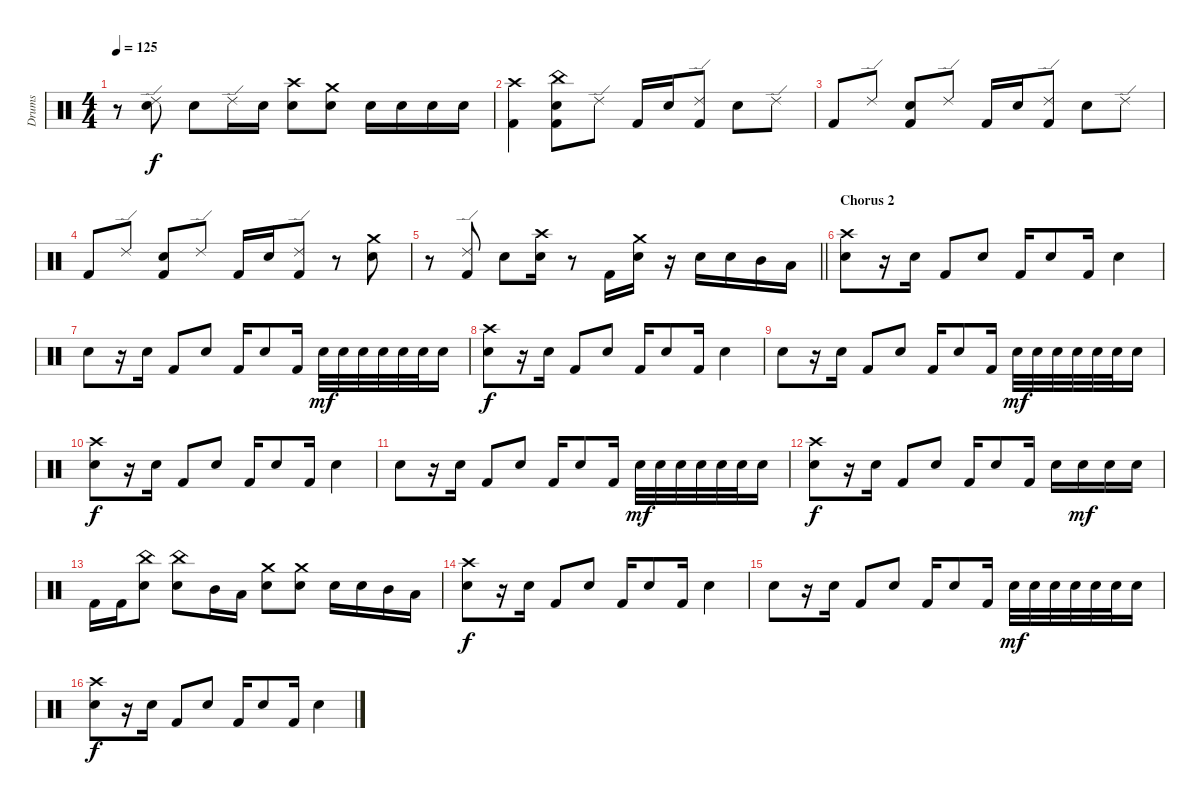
\track ("Drums" "Drums") {instrument percussion}
\staff
\articulation defaults
\ts (4 4)
\tempo 125
\clef neutral
\ks c
r.8{dy f} ("Ride (edge) 2" "Electric Snare (hit)").8 "Electric Snare (hit)".8 "Ride (edge) 2".16 "Electric Snare (hit)".16 ("Crash high (hit)" "Electric Snare (hit)").8 ("Crash medium (hit)" "Electric Snare (hit)").8 "Electric Snare (hit)".16 "Electric Snare (hit)".16 "Electric Snare (hit)".16 "Electric Snare (hit)".16 |
("Crash high (hit)" "Kick (hit) 2").4 ("China (hit)" "Electric Snare (hit)" "Kick (hit) 2").8 "Ride (edge) 2".8 "Kick (hit) 2".16 "Electric Snare (hit)".16 ("Ride (edge) 2" "Kick (hit) 2").8 "Electric Snare (hit)".8 "Ride (edge) 2".8 |
"Kick (hit) 2".8 "Ride (edge) 2".8 ("Electric Snare (hit)" "Kick (hit) 2").8 "Ride (edge) 2".8 "Kick (hit) 2".16 "Electric Snare (hit)".16 ("Ride (edge) 2" "Kick (hit) 2").8 "Electric Snare (hit)".8 "Ride (edge) 2".8 |
"Kick (hit) 2".8 "Ride (edge) 2".8 ("Electric Snare (hit)" "Kick (hit) 2").8 "Ride (edge) 2".8 "Kick (hit) 2".16 "Electric Snare (hit)".16 ("Ride (edge) 2" "Kick (hit) 2").8 r.8 ("Crash medium (hit)" "Electric Snare (hit)").8 |
\barLineRight lightlight
r.8 ("Ride (edge) 2" "Kick (hit) 2").8 "Electric Snare (hit)".8 ("Crash high (hit)" "Electric Snare (hit)").16 r.8 "Kick (hit) 2".16 ("Crash medium (hit)" "Electric Snare (hit)").16 r.16 "Electric Snare (hit)".16 "Electric Snare (hit)".16 "Mid Tom (hit)".16 "Low Tom (hit)".16 |
\section ("" "Chorus 2")
("Crash high (hit)" "Electric Snare (hit)").8 r.16 "Electric Snare (hit)".16 "Kick (hit) 2".8 "Electric Snare (hit)".8 "Kick (hit) 2".16 "Electric Snare (hit)".8 "Kick (hit) 2".16 "Electric Snare (hit)".4 |
"Electric Snare (hit)".8 r.16 "Electric Snare (hit)".16 "Kick (hit) 2".8 "Electric Snare (hit)".8 "Kick (hit) 2".16 "Electric Snare (hit)".8 "Kick (hit) 2".16 "Electric Snare (hit)".32{dy mf} "Electric Snare (hit)".32 "Electric Snare (hit)".32 "Electric Snare (hit)".32 "Electric Snare (hit)".32 "Electric Snare (hit)".32 "Electric Snare (hit)".16 |
("Crash high (hit)" "Electric Snare (hit)").8{dy f} r.16 "Electric Snare (hit)".16 "Kick (hit) 2".8 "Electric Snare (hit)".8 "Kick (hit) 2".16 "Electric Snare (hit)".8 "Kick (hit) 2".16 "Electric Snare (hit)".4 |
"Electric Snare (hit)".8 r.16 "Electric Snare (hit)".16 "Kick (hit) 2".8 "Electric Snare (hit)".8 "Kick (hit) 2".16 "Electric Snare (hit)".8 "Kick (hit) 2".16 "Electric Snare (hit)".32{dy mf} "Electric Snare (hit)".32 "Electric Snare (hit)".32 "Electric Snare (hit)".32 "Electric Snare (hit)".32 "Electric Snare (hit)".32 "Electric Snare (hit)".16 |
("Crash high (hit)" "Electric Snare (hit)").8{dy f} r.16 "Electric Snare (hit)".16 "Kick (hit) 2".8 "Electric Snare (hit)".8 "Kick (hit) 2".16 "Electric Snare (hit)".8 "Kick (hit) 2".16 "Electric Snare (hit)".4 |
"Electric Snare (hit)".8 r.16 "Electric Snare (hit)".16 "Kick (hit) 2".8 "Electric Snare (hit)".8 "Kick (hit) 2".16 "Electric Snare (hit)".8 "Kick (hit) 2".16 "Electric Snare (hit)".32{dy mf} "Electric Snare (hit)".32 "Electric Snare (hit)".32 "Electric Snare (hit)".32 "Electric Snare (hit)".32 "Electric Snare (hit)".32 "Electric Snare (hit)".16 |
("Crash high (hit)" "Electric Snare (hit)").8{dy f} r.16 "Electric Snare (hit)".16 "Kick (hit) 2".8 "Electric Snare (hit)".8 "Kick (hit) 2".16 "Electric Snare (hit)".8 "Kick (hit) 2".16 "Electric Snare (hit)".16 "Electric Snare (hit)".16{dy mf} "Electric Snare (hit)".16 "Electric Snare (hit)".16 |
"Kick (hit) 2".16 "Kick (hit) 2".16 ("China (hit)" "Electric Snare (hit)").8 ("China (hit)" "Electric Snare (hit)").8 "Mid Tom (hit)".16 "Low Tom (hit)".16 ("Crash medium (hit)" "Electric Snare (hit)").8 ("Crash medium (hit)" "Electric Snare (hit)").8 "Electric Snare (hit)".16 "Electric Snare (hit)".16 "Mid Tom (hit)".16 "Low Tom (hit)".16 |
("Crash high (hit)" "Electric Snare (hit)").8{dy f} r.16 "Electric Snare (hit)".16 "Kick (hit) 2".8 "Electric Snare (hit)".8 "Kick (hit) 2".16 "Electric Snare (hit)".8 "Kick (hit) 2".16 "Electric Snare (hit)".4 |
"Electric Snare (hit)".8 r.16 "Electric Snare (hit)".16 "Kick (hit) 2".8 "Electric Snare (hit)".8 "Kick (hit) 2".16 "Electric Snare (hit)".8 "Kick (hit) 2".16 "Electric Snare (hit)".32{dy mf} "Electric Snare (hit)".32 "Electric Snare (hit)".32 "Electric Snare (hit)".32 "Electric Snare (hit)".32 "Electric Snare (hit)".32 "Electric Snare (hit)".16 |
("Crash high (hit)" "Electric Snare (hit)").8{dy f} r.16 "Electric Snare (hit)".16 "Kick (hit) 2".8 "Electric Snare (hit)".8 "Kick (hit) 2".16 "Electric Snare (hit)".8 "Kick (hit) 2".16 "Electric Snare (hit)".4
